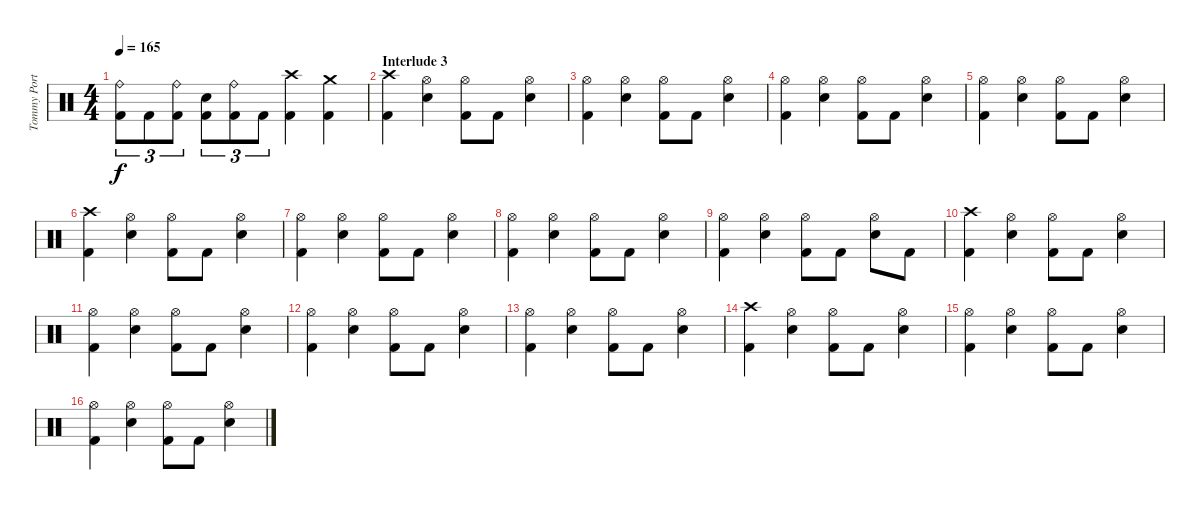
\track ("Tommy Portimo" "Tommy Port") {instrument percussion}
\staff {score}
\articulation defaults
\ts (4 4)
\tempo 165
\clef neutral
\ks c
("Ride (bell)" "Kick (hit) 2").8{tu (3 2) dy f} "Kick (hit) 2".8{tu (3 2)} ("Ride (bell)" "Kick (hit) 2").8{tu (3 2)} ("Snare (hit) 2" "Kick (hit) 2").8{tu (3 2)} ("Ride (bell)" "Kick (hit) 2").8{tu (3 2)} "Kick (hit) 2".8{tu (3 2)} ("Crash high (hit)" "Kick (hit) 2").4 ("Crash medium (hit)" "Kick (hit) 2").4 |
\section ("" "Interlude 3")
("Crash high (hit)" "Kick (hit) 2").4 ("Hi-Hat (open)" "Snare (hit) 2").4 ("Hi-Hat (open)" "Kick (hit) 2").8 "Kick (hit) 2".8 ("Hi-Hat (open)" "Snare (hit) 2").4 |
("Hi-Hat (open)" "Kick (hit) 2").4 ("Hi-Hat (open)" "Snare (hit) 2").4 ("Hi-Hat (open)" "Kick (hit) 2").8 "Kick (hit) 2".8 ("Hi-Hat (open)" "Snare (hit) 2").4 |
("Hi-Hat (open)" "Kick (hit) 2").4 ("Hi-Hat (open)" "Snare (hit) 2").4 ("Hi-Hat (open)" "Kick (hit) 2").8 "Kick (hit) 2".8 ("Hi-Hat (open)" "Snare (hit) 2").4 |
("Hi-Hat (open)" "Kick (hit) 2").4 ("Hi-Hat (open)" "Snare (hit) 2").4 ("Hi-Hat (open)" "Kick (hit) 2").8 "Kick (hit) 2".8 ("Hi-Hat (open)" "Snare (hit) 2").4 |
("Crash high (hit)" "Kick (hit) 2").4 ("Hi-Hat (open)" "Snare (hit) 2").4 ("Hi-Hat (open)" "Kick (hit) 2").8 "Kick (hit) 2".8 ("Hi-Hat (open)" "Snare (hit) 2").4 |
("Hi-Hat (open)" "Kick (hit) 2").4 ("Hi-Hat (open)" "Snare (hit) 2").4 ("Hi-Hat (open)" "Kick (hit) 2").8 "Kick (hit) 2".8 ("Hi-Hat (open)" "Snare (hit) 2").4 |
("Hi-Hat (open)" "Kick (hit) 2").4 ("Hi-Hat (open)" "Snare (hit) 2").4 ("Hi-Hat (open)" "Kick (hit) 2").8 "Kick (hit) 2".8 ("Hi-Hat (open)" "Snare (hit) 2").4 |
("Hi-Hat (open)" "Kick (hit) 2").4 ("Hi-Hat (open)" "Snare (hit) 2").4 ("Hi-Hat (open)" "Kick (hit) 2").8 "Kick (hit) 2".8 ("Hi-Hat (open)" "Snare (hit) 2").8 "Kick (hit) 2".8 |
("Crash high (hit)" "Kick (hit) 2").4 ("Hi-Hat (open)" "Snare (hit) 2").4 ("Hi-Hat (open)" "Kick (hit) 2").8 "Kick (hit) 2".8 ("Hi-Hat (open)" "Snare (hit) 2").4 |
("Hi-Hat (open)" "Kick (hit) 2").4 ("Hi-Hat (open)" "Snare (hit) 2").4 ("Hi-Hat (open)" "Kick (hit) 2").8 "Kick (hit) 2".8 ("Hi-Hat (open)" "Snare (hit) 2").4 |
("Hi-Hat (open)" "Kick (hit) 2").4 ("Hi-Hat (open)" "Snare (hit) 2").4 ("Hi-Hat (open)" "Kick (hit) 2").8 "Kick (hit) 2".8 ("Hi-Hat (open)" "Snare (hit) 2").4 |
("Hi-Hat (open)" "Kick (hit) 2").4 ("Hi-Hat (open)" "Snare (hit) 2").4 ("Hi-Hat (open)" "Kick (hit) 2").8 "Kick (hit) 2".8 ("Hi-Hat (open)" "Snare (hit) 2").4 |
("Crash high (hit)" "Kick (hit) 2").4 ("Hi-Hat (open)" "Snare (hit) 2").4 ("Hi-Hat (open)" "Kick (hit) 2").8 "Kick (hit) 2".8 ("Hi-Hat (open)" "Snare (hit) 2").4 |
("Hi-Hat (open)" "Kick (hit) 2").4 ("Hi-Hat (open)" "Snare (hit) 2").4 ("Hi-Hat (open)" "Kick (hit) 2").8 "Kick (hit) 2".8 ("Hi-Hat (open)" "Snare (hit) 2").4 |
("Hi-Hat (open)" "Kick (hit) 2").4 ("Hi-Hat (open)" "Snare (hit) 2").4 ("Hi-Hat (open)" "Kick (hit) 2").8 "Kick (hit) 2".8 ("Hi-Hat (open)" "Snare (hit) 2").4
